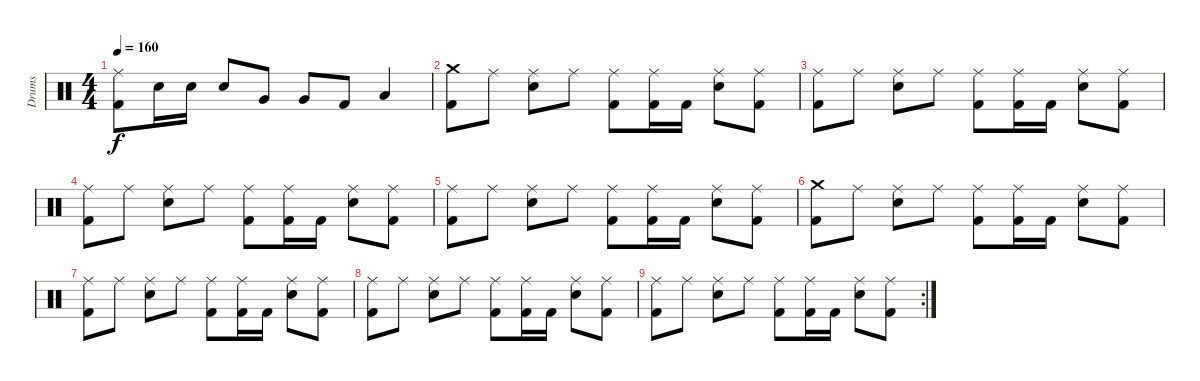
\track ("Drums" "Drums") {instrument percussion}
\staff {score}
\articulation defaults
\ts (4 4)
\tempo 160
\clef neutral
\ks c
("Ride (middle)" "Kick (hit) 2").8{dy f} "Electric Snare (hit)".16 "Electric Snare (hit)".16 "Electric Snare (hit)".8 "Very Low Tom (hit)".8 "Very Low Tom (hit)".8 "Kick (hit) 2".8 "Low Floor Tom (hit)".4 |
("Crash medium (hit)" "Kick (hit) 2").8 "Ride (middle)".8 ("Ride (middle)" "Electric Snare (hit)").8 "Ride (middle)".8 ("Ride (middle)" "Kick (hit) 2").8 ("Ride (middle)" "Kick (hit) 2").16 "Kick (hit) 2".16 ("Ride (middle)" "Electric Snare (hit)").8 ("Ride (middle)" "Kick (hit) 2").8 |
("Ride (middle)" "Kick (hit) 2").8 "Ride (middle)".8 ("Ride (middle)" "Electric Snare (hit)").8 "Ride (middle)".8 ("Ride (middle)" "Kick (hit) 2").8 ("Ride (middle)" "Kick (hit) 2").16 "Kick (hit) 2".16 ("Ride (middle)" "Electric Snare (hit)").8 ("Ride (middle)" "Kick (hit) 2").8 |
("Ride (middle)" "Kick (hit) 2").8 "Ride (middle)".8 ("Ride (middle)" "Electric Snare (hit)").8 "Ride (middle)".8 ("Ride (middle)" "Kick (hit) 2").8 ("Ride (middle)" "Kick (hit) 2").16 "Kick (hit) 2".16 ("Ride (middle)" "Electric Snare (hit)").8 ("Ride (middle)" "Kick (hit) 2").8 |
("Ride (middle)" "Kick (hit) 2").8 "Ride (middle)".8 ("Ride (middle)" "Electric Snare (hit)").8 "Ride (middle)".8 ("Ride (middle)" "Kick (hit) 2").8 ("Ride (middle)" "Kick (hit) 2").16 "Kick (hit) 2".16 ("Ride (middle)" "Electric Snare (hit)").8 ("Ride (middle)" "Kick (hit) 2").8 |
("Crash medium (hit)" "Kick (hit) 2").8 "Ride (middle)".8 ("Ride (middle)" "Electric Snare (hit)").8 "Ride (middle)".8 ("Ride (middle)" "Kick (hit) 2").8 ("Ride (middle)" "Kick (hit) 2").16 "Kick (hit) 2".16 ("Ride (middle)" "Electric Snare (hit)").8 ("Ride (middle)" "Kick (hit) 2").8 |
("Ride (middle)" "Kick (hit) 2").8 "Ride (middle)".8 ("Ride (middle)" "Electric Snare (hit)").8 "Ride (middle)".8 ("Ride (middle)" "Kick (hit) 2").8 ("Ride (middle)" "Kick (hit) 2").16 "Kick (hit) 2".16 ("Ride (middle)" "Electric Snare (hit)").8 ("Ride (middle)" "Kick (hit) 2").8 |
("Ride (middle)" "Kick (hit) 2").8 "Ride (middle)".8 ("Ride (middle)" "Electric Snare (hit)").8 "Ride (middle)".8 ("Ride (middle)" "Kick (hit) 2").8 ("Ride (middle)" "Kick (hit) 2").16 "Kick (hit) 2".16 ("Ride (middle)" "Electric Snare (hit)").8 ("Ride (middle)" "Kick (hit) 2").8 |
\rc 2
("Ride (middle)" "Kick (hit) 2").8 "Ride (middle)".8 ("Ride (middle)" "Electric Snare (hit)").8 "Ride (middle)".8 ("Ride (middle)" "Kick (hit) 2").8 ("Ride (middle)" "Kick (hit) 2").16 "Kick (hit) 2".16 ("Ride (middle)" "Electric Snare (hit)").8 ("Ride (middle)" "Kick (hit) 2").8
